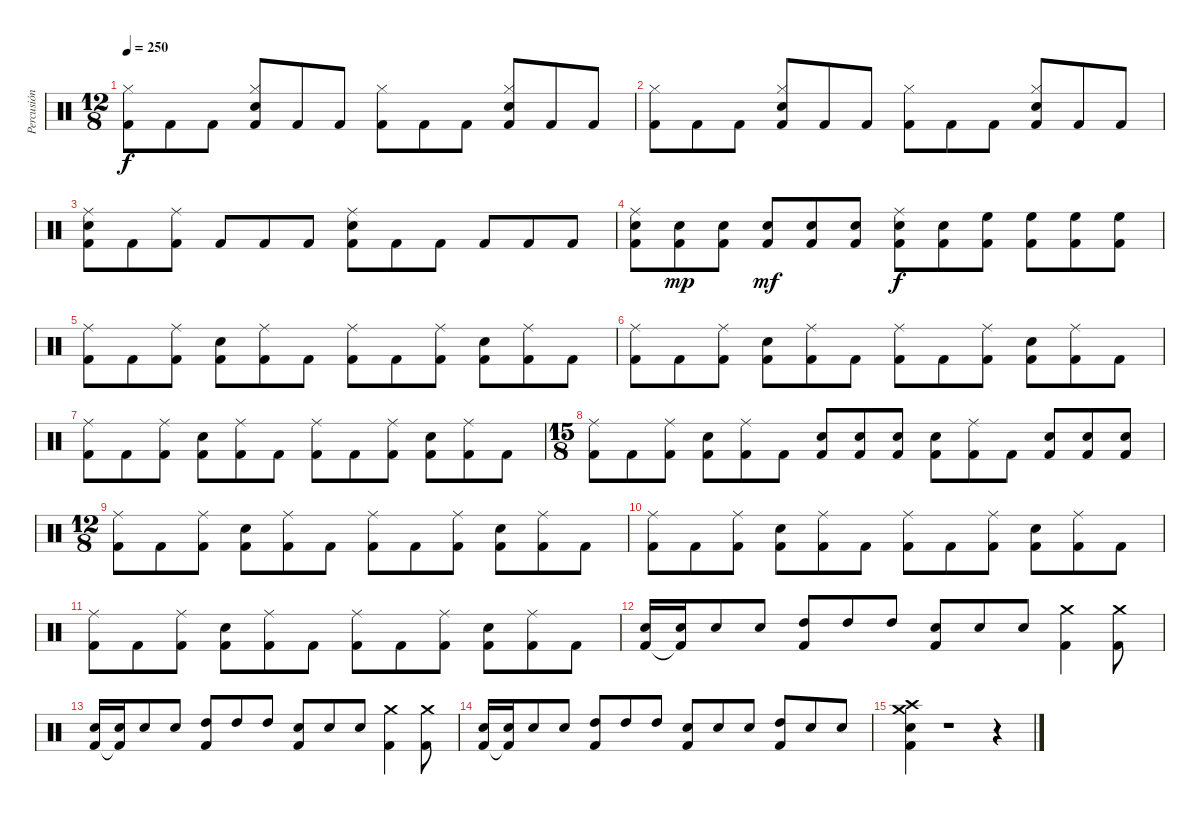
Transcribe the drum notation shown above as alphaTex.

\track ("Percusión" "Percusión") {instrument percussion}
\staff {score}
\articulation defaults
\ts (12 8)
\tempo 250
\clef neutral
\ks c
("Kick (hit) 2" "Hi-Hat (closed)").8{dy f} "Kick (hit) 2".8 "Kick (hit) 2".8 ("Kick (hit) 2" "Hi-Hat (closed)" "Snare (hit) 2").8 "Kick (hit) 2".8 "Kick (hit) 2".8 ("Kick (hit) 2" "Hi-Hat (closed)").8 "Kick (hit) 2".8 "Kick (hit) 2".8 ("Kick (hit) 2" "Hi-Hat (closed)" "Snare (hit) 2").8 "Kick (hit) 2".8 "Kick (hit) 2".8 |
("Kick (hit) 2" "Hi-Hat (closed)").8 "Kick (hit) 2".8 "Kick (hit) 2".8 ("Kick (hit) 2" "Hi-Hat (closed)" "Snare (hit) 2").8 "Kick (hit) 2".8 "Kick (hit) 2".8 ("Kick (hit) 2" "Hi-Hat (closed)").8 "Kick (hit) 2".8 "Kick (hit) 2".8 ("Kick (hit) 2" "Hi-Hat (closed)" "Snare (hit) 2").8 "Kick (hit) 2".8 "Kick (hit) 2".8 |
("Kick (hit) 2" "Ride (middle)" "Snare (hit) 2").8 "Kick (hit) 2".8 ("Kick (hit) 2" "Ride (middle)").8 "Kick (hit) 2".8 "Kick (hit) 2".8 "Kick (hit) 2".8 ("Kick (hit) 2" "Ride (middle)" "Snare (hit) 2").8 "Kick (hit) 2".8 "Kick (hit) 2".8 "Kick (hit) 2".8 "Kick (hit) 2".8 "Kick (hit) 2".8 |
("Kick (hit) 2" "Ride (middle)" "Snare (hit) 2").8 ("Kick (hit) 2" "Snare (hit) 2").8{dy mp} ("Kick (hit) 2" "Snare (hit) 2").8 ("Kick (hit) 2" "Snare (hit) 2").8{dy mf} ("Kick (hit) 2" "Snare (hit) 2").8 ("Kick (hit) 2" "Snare (hit) 2").8 ("Kick (hit) 2" "Ride (middle)" "Snare (hit) 2").8{dy f} ("Kick (hit) 2" "Snare (hit) 2").8 ("Kick (hit) 2" "High Floor Tom (hit)").8 ("Kick (hit) 2" "High Floor Tom (hit)").8 ("Kick (hit) 2" "High Floor Tom (hit)").8 ("Kick (hit) 2" "High Floor Tom (hit)").8 |
("Kick (hit) 2" "Ride (middle)").8 "Kick (hit) 2".8 ("Kick (hit) 2" "Ride (middle)").8 ("Kick (hit) 2" "Snare (hit) 2").8 ("Kick (hit) 2" "Ride (middle)").8 "Kick (hit) 2".8 ("Kick (hit) 2" "Ride (middle)").8 "Kick (hit) 2".8 ("Kick (hit) 2" "Ride (middle)").8 ("Kick (hit) 2" "Snare (hit) 2").8 ("Kick (hit) 2" "Ride (middle)").8 "Kick (hit) 2".8 |
("Kick (hit) 2" "Ride (middle)").8 "Kick (hit) 2".8 ("Kick (hit) 2" "Ride (middle)").8 ("Kick (hit) 2" "Snare (hit) 2").8 ("Kick (hit) 2" "Ride (middle)").8 "Kick (hit) 2".8 ("Kick (hit) 2" "Ride (middle)").8 "Kick (hit) 2".8 ("Kick (hit) 2" "Ride (middle)").8 ("Kick (hit) 2" "Snare (hit) 2").8 ("Kick (hit) 2" "Ride (middle)").8 "Kick (hit) 2".8 |
("Kick (hit) 2" "Ride (middle)").8 "Kick (hit) 2".8 ("Kick (hit) 2" "Ride (middle)").8 ("Kick (hit) 2" "Snare (hit) 2").8 ("Kick (hit) 2" "Ride (middle)").8 "Kick (hit) 2".8 ("Kick (hit) 2" "Ride (middle)").8 "Kick (hit) 2".8 ("Kick (hit) 2" "Ride (middle)").8 ("Kick (hit) 2" "Snare (hit) 2").8 ("Kick (hit) 2" "Ride (middle)").8 "Kick (hit) 2".8 |
\ts (15 8)
("Kick (hit) 2" "Ride (middle)").8 "Kick (hit) 2".8 ("Kick (hit) 2" "Ride (middle)").8 ("Kick (hit) 2" "Snare (hit) 2").8 ("Kick (hit) 2" "Ride (middle)").8 "Kick (hit) 2".8 ("Kick (hit) 2" "Snare (hit) 2").8 ("Kick (hit) 2" "Snare (hit) 2").8 ("Kick (hit) 2" "Snare (hit) 2").8 ("Kick (hit) 2" "Snare (hit) 2").8 ("Kick (hit) 2" "Ride (middle)").8 "Kick (hit) 2".8 ("Kick (hit) 2" "Snare (hit) 2").8 ("Kick (hit) 2" "Snare (hit) 2").8 ("Kick (hit) 2" "Snare (hit) 2").8 |
\ts (12 8)
("Kick (hit) 2" "Ride (middle)").8 "Kick (hit) 2".8 ("Kick (hit) 2" "Ride (middle)").8 ("Kick (hit) 2" "Snare (hit) 2").8 ("Kick (hit) 2" "Ride (middle)").8 "Kick (hit) 2".8 ("Kick (hit) 2" "Ride (middle)").8 "Kick (hit) 2".8 ("Kick (hit) 2" "Ride (middle)").8 ("Kick (hit) 2" "Snare (hit) 2").8 ("Kick (hit) 2" "Ride (middle)").8 "Kick (hit) 2".8 |
("Kick (hit) 2" "Ride (middle)").8 "Kick (hit) 2".8 ("Kick (hit) 2" "Ride (middle)").8 ("Kick (hit) 2" "Snare (hit) 2").8 ("Kick (hit) 2" "Ride (middle)").8 "Kick (hit) 2".8 ("Kick (hit) 2" "Ride (middle)").8 "Kick (hit) 2".8 ("Kick (hit) 2" "Ride (middle)").8 ("Kick (hit) 2" "Snare (hit) 2").8 ("Kick (hit) 2" "Ride (middle)").8 "Kick (hit) 2".8 |
("Kick (hit) 2" "Ride (middle)").8 "Kick (hit) 2".8 ("Kick (hit) 2" "Ride (middle)").8 ("Kick (hit) 2" "Snare (hit) 2").8 ("Kick (hit) 2" "Ride (middle)").8 "Kick (hit) 2".8 ("Kick (hit) 2" "Ride (middle)").8 "Kick (hit) 2".8 ("Kick (hit) 2" "Ride (middle)").8 ("Kick (hit) 2" "Snare (hit) 2").8 ("Kick (hit) 2" "Ride (middle)").8 "Kick (hit) 2".8 |
("Kick (hit) 2" "Snare (hit) 2").16 ("Kick (hit) 2"{t} "Snare (hit) 2").16 "Snare (hit) 2".8 "Snare (hit) 2".8 ("Kick (hit) 2" "High Tom (hit)").8 "High Tom (hit)".8 "High Tom (hit)".8 ("Kick (hit) 2" "Snare (hit) 2").8 "Snare (hit) 2".8 "Snare (hit) 2".8 ("Kick (hit) 2" "Crash medium (hit)").4 ("Kick (hit) 2" "Crash medium (hit)").8 |
("Kick (hit) 2" "Snare (hit) 2").16 ("Kick (hit) 2"{t} "Snare (hit) 2").16 "Snare (hit) 2".8 "Snare (hit) 2".8 ("Kick (hit) 2" "High Tom (hit)").8 "High Tom (hit)".8 "High Tom (hit)".8 ("Kick (hit) 2" "Snare (hit) 2").8 "Snare (hit) 2".8 "Snare (hit) 2".8 ("Kick (hit) 2" "Crash medium (hit)").4 ("Kick (hit) 2" "Crash medium (hit)").8 |
("Kick (hit) 2" "Snare (hit) 2").16 ("Kick (hit) 2"{t} "Snare (hit) 2").16 "Snare (hit) 2".8 "Snare (hit) 2".8 ("Kick (hit) 2" "High Tom (hit)").8 "High Tom (hit)".8 "High Tom (hit)".8 ("Kick (hit) 2" "Snare (hit) 2").8 "Snare (hit) 2".8 "Snare (hit) 2".8 ("Kick (hit) 2" "High Tom (hit)").8 "Snare (hit) 2".8 "Snare (hit) 2".8 |
("Kick (hit) 2" "Snare (hit) 2" "Crash medium (hit)" "Crash high (hit)").4 r.1 r.4
